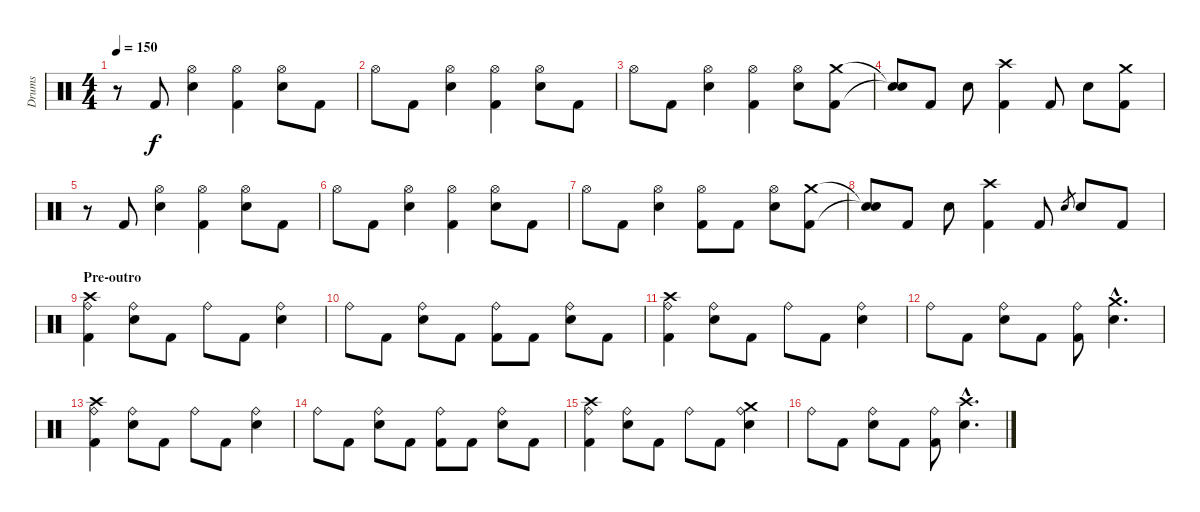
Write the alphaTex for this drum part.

\track ("Drums" "Drums") {instrument percussion}
\staff {score}
\articulation defaults
\ts (4 4)
\tempo 150
\clef neutral
\ks c
r.8{dy f} "Kick (hit) 2".8 ("Hi-Hat (open)" "Electric Snare (hit)").4 ("Hi-Hat (open)" "Kick (hit) 2").4 ("Hi-Hat (open)" "Electric Snare (hit)").8 "Kick (hit) 2".8 |
"Hi-Hat (open)".8 "Kick (hit) 2".8 ("Hi-Hat (open)" "Electric Snare (hit)").4 ("Hi-Hat (open)" "Kick (hit) 2").4 ("Hi-Hat (open)" "Electric Snare (hit)").8 "Kick (hit) 2".8 |
"Hi-Hat (open)".8 "Kick (hit) 2".8 ("Hi-Hat (open)" "Electric Snare (hit)").4 ("Hi-Hat (open)" "Kick (hit) 2").4 ("Hi-Hat (open)" "Electric Snare (hit)").8 ("Crash medium (hit)" "Kick (hit) 2").8 |
("Snare (hit)"{t} "Snare (hit)"{t}).8 "Kick (hit) 2".8 "Electric Snare (hit)".8 ("Crash high (hit)" "Kick (hit) 2").4 "Kick (hit) 2".8 "Electric Snare (hit)".8 ("Crash medium (hit)" "Kick (hit) 2").8 |
r.8 "Kick (hit) 2".8 ("Hi-Hat (open)" "Electric Snare (hit)").4 ("Hi-Hat (open)" "Kick (hit) 2").4 ("Hi-Hat (open)" "Electric Snare (hit)").8 "Kick (hit) 2".8 |
"Hi-Hat (open)".8 "Kick (hit) 2".8 ("Hi-Hat (open)" "Electric Snare (hit)").4 ("Hi-Hat (open)" "Kick (hit) 2").4 ("Hi-Hat (open)" "Electric Snare (hit)").8 "Kick (hit) 2".8 |
"Hi-Hat (open)".8 "Kick (hit) 2".8 ("Hi-Hat (open)" "Electric Snare (hit)").4 ("Hi-Hat (open)" "Kick (hit) 2").8 "Kick (hit) 2".8 ("Hi-Hat (open)" "Electric Snare (hit)").8 ("Crash medium (hit)" "Kick (hit) 2").8 |
("Snare (hit)"{t} "Snare (hit)"{t}).8 "Kick (hit) 2".8 "Electric Snare (hit)".8 ("Crash high (hit)" "Kick (hit) 2").4 "Kick (hit) 2".8 "Electric Snare (hit)".8{gr} "Electric Snare (hit)".8 "Kick (hit) 2".8 |
\section ("" "Pre-outro")
("Ride (bell)" "Kick (hit) 2" "Crash high (hit)").4 ("Ride (bell)" "Electric Snare (hit)").8 "Kick (hit) 2".8 "Ride (bell)".8 "Kick (hit) 2".8 ("Ride (bell)" "Electric Snare (hit)").4 |
"Ride (bell)".8 "Kick (hit) 2".8 ("Ride (bell)" "Electric Snare (hit)").8 "Kick (hit) 2".8 ("Ride (bell)" "Kick (hit) 2").8 "Kick (hit) 2".8 ("Ride (bell)" "Electric Snare (hit)").8 "Kick (hit) 2".8 |
("Ride (bell)" "Kick (hit) 2" "Crash high (hit)").4 ("Ride (bell)" "Electric Snare (hit)").8 "Kick (hit) 2".8 "Ride (bell)".8 "Kick (hit) 2".8 ("Ride (bell)" "Electric Snare (hit)").4 |
"Ride (bell)".8 "Kick (hit) 2".8 ("Ride (bell)" "Electric Snare (hit)").8 "Kick (hit) 2".8 ("Ride (bell)" "Kick (hit) 2").8 ("Electric Snare (hit)"{hac} "Crash medium (hit)"{hac}).4{d} |
("Ride (bell)" "Kick (hit) 2" "Crash high (hit)").4 ("Ride (bell)" "Electric Snare (hit)").8 "Kick (hit) 2".8 "Ride (bell)".8 "Kick (hit) 2".8 ("Ride (bell)" "Electric Snare (hit)").4 |
"Ride (bell)".8 "Kick (hit) 2".8 ("Ride (bell)" "Electric Snare (hit)").8 "Kick (hit) 2".8 ("Ride (bell)" "Kick (hit) 2").8 "Kick (hit) 2".8 ("Ride (bell)" "Electric Snare (hit)").8 "Kick (hit) 2".8 |
("Ride (bell)" "Kick (hit) 2" "Crash high (hit)").4 ("Ride (bell)" "Electric Snare (hit)").8 "Kick (hit) 2".8 "Ride (bell)".8 "Kick (hit) 2".8 ("Ride (bell)" "Electric Snare (hit)" "Crash medium (hit)").4 |
"Ride (bell)".8 "Kick (hit) 2".8 ("Ride (bell)" "Electric Snare (hit)").8 "Kick (hit) 2".8 ("Ride (bell)" "Kick (hit) 2").8 ("Electric Snare (hit)"{hac} "Crash high (hit)"{hac}).4{d}
